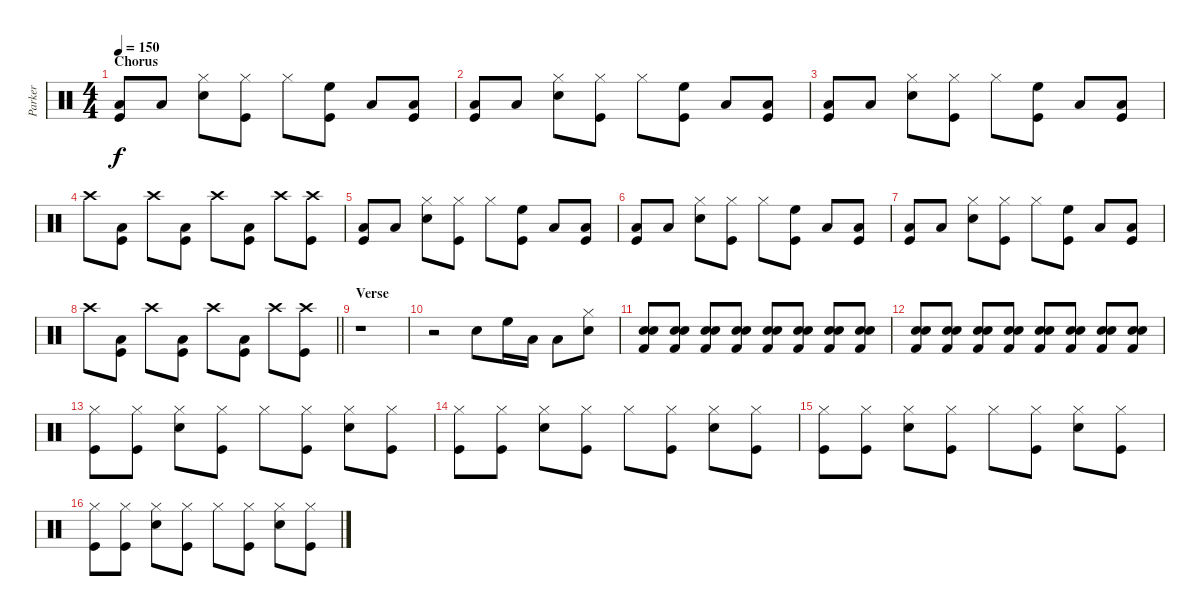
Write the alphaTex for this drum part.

\track ("Parker" "Parker") {instrument percussion}
\staff {score}
\articulation defaults
\ts (4 4)
\section ("" "Chorus")
\tempo 150
\clef neutral
\ks c
("Low Floor Tom (hit)" "Kick (hit)").8{dy f} "Low Tom (hit)".8 ("Hi-Hat (closed)" "Electric Snare (hit)").8 ("Hi-Hat (closed)" "Kick (hit)").8 "Hi-Hat (closed)".8 ("High Floor Tom (hit)" "Kick (hit)").8 "Low Tom (hit)".8 ("Low Floor Tom (hit)" "Kick (hit)").8 |
("Low Floor Tom (hit)" "Kick (hit)").8 "Low Tom (hit)".8 ("Hi-Hat (closed)" "Electric Snare (hit)").8 ("Hi-Hat (closed)" "Kick (hit)").8 "Hi-Hat (closed)".8 ("High Floor Tom (hit)" "Kick (hit)").8 "Low Tom (hit)".8 ("Low Floor Tom (hit)" "Kick (hit)").8 |
("Low Floor Tom (hit)" "Kick (hit)").8 "Low Tom (hit)".8 ("Hi-Hat (closed)" "Electric Snare (hit)").8 ("Hi-Hat (closed)" "Kick (hit)").8 "Hi-Hat (closed)".8 ("High Floor Tom (hit)" "Kick (hit)").8 "Low Tom (hit)".8 ("Low Floor Tom (hit)" "Kick (hit)").8 |
"Crash high (hit)".8 ("Low Floor Tom (hit)" "Kick (hit)").8 "Crash high (hit)".8 ("Low Floor Tom (hit)" "Kick (hit)").8 "Crash high (hit)".8 ("Low Floor Tom (hit)" "Kick (hit)").8 "Crash high (hit)".8 ("Crash high (hit)" "Kick (hit)").8 |
("Low Floor Tom (hit)" "Kick (hit)").8 "Low Tom (hit)".8 ("Hi-Hat (closed)" "Electric Snare (hit)").8 ("Hi-Hat (closed)" "Kick (hit)").8 "Hi-Hat (closed)".8 ("High Floor Tom (hit)" "Kick (hit)").8 "Low Tom (hit)".8 ("Low Floor Tom (hit)" "Kick (hit)").8 |
("Low Floor Tom (hit)" "Kick (hit)").8 "Low Tom (hit)".8 ("Hi-Hat (closed)" "Electric Snare (hit)").8 ("Hi-Hat (closed)" "Kick (hit)").8 "Hi-Hat (closed)".8 ("High Floor Tom (hit)" "Kick (hit)").8 "Low Tom (hit)".8 ("Low Floor Tom (hit)" "Kick (hit)").8 |
("Low Floor Tom (hit)" "Kick (hit)").8 "Low Tom (hit)".8 ("Hi-Hat (closed)" "Electric Snare (hit)").8 ("Hi-Hat (closed)" "Kick (hit)").8 "Hi-Hat (closed)".8 ("High Floor Tom (hit)" "Kick (hit)").8 "Low Tom (hit)".8 ("Low Floor Tom (hit)" "Kick (hit)").8 |
\barLineRight lightlight "Crash high (hit)".8
("Low Floor Tom (hit)" "Kick (hit)").8 "Crash high (hit)".8 ("Low Floor Tom (hit)" "Kick (hit)").8 "Crash high (hit)".8 ("Low Floor Tom (hit)" "Kick (hit)").8 "Crash high (hit)".8 ("Crash high (hit)" "Kick (hit)").8 |
\section ("" "Verse")
r.1 |
r.2 "Snare (hit) 2".8 "High Floor Tom (hit)".16 "Low Tom (hit)".16 "Low Floor Tom (hit)".8 ("Hi-Hat (closed)" "Snare (hit) 2").8 |
("Snare (hit) 2" "Snare (hit) 2" "Kick (hit) 2").8{volume 5} ("Snare (hit) 2" "Snare (hit) 2" "Kick (hit) 2").8{volume 16} ("Snare (hit) 2" "Snare (hit) 2" "Kick (hit) 2").8 ("Snare (hit) 2" "Snare (hit) 2" "Kick (hit) 2").8 ("Snare (hit) 2" "Snare (hit) 2" "Kick (hit) 2").8 ("Snare (hit) 2" "Snare (hit) 2" "Kick (hit) 2").8 ("Snare (hit) 2" "Snare (hit) 2" "Kick (hit) 2").8 ("Snare (hit) 2" "Snare (hit) 2" "Kick (hit) 2").8 |
("Snare (hit) 2" "Snare (hit) 2" "Kick (hit) 2").8 ("Snare (hit) 2" "Snare (hit) 2" "Kick (hit) 2").8 ("Snare (hit) 2" "Snare (hit) 2" "Kick (hit) 2").8 ("Snare (hit) 2" "Snare (hit) 2" "Kick (hit) 2").8 ("Snare (hit) 2" "Snare (hit) 2" "Kick (hit) 2").8 ("Snare (hit) 2" "Snare (hit) 2" "Kick (hit) 2").8 ("Snare (hit) 2" "Snare (hit) 2" "Kick (hit) 2").8 ("Snare (hit) 2" "Snare (hit) 2" "Kick (hit) 2").8 |
("Hi-Hat (closed)" "Kick (hit)").8 ("Hi-Hat (closed)" "Kick (hit)").8 ("Hi-Hat (closed)" "Electric Snare (hit)").8 ("Hi-Hat (closed)" "Kick (hit)").8 "Hi-Hat (closed)".8 ("Hi-Hat (closed)" "Kick (hit)").8 ("Hi-Hat (closed)" "Electric Snare (hit)").8 ("Hi-Hat (closed)" "Kick (hit)").8 |
("Hi-Hat (closed)" "Kick (hit)").8 ("Hi-Hat (closed)" "Kick (hit)").8 ("Hi-Hat (closed)" "Electric Snare (hit)").8 ("Hi-Hat (closed)" "Kick (hit)").8 "Hi-Hat (closed)".8 ("Hi-Hat (closed)" "Kick (hit)").8 ("Hi-Hat (closed)" "Electric Snare (hit)").8 ("Hi-Hat (closed)" "Kick (hit)").8 |
("Hi-Hat (closed)" "Kick (hit)").8 ("Hi-Hat (closed)" "Kick (hit)").8 ("Hi-Hat (closed)" "Electric Snare (hit)").8 ("Hi-Hat (closed)" "Kick (hit)").8 "Hi-Hat (closed)".8 ("Hi-Hat (closed)" "Kick (hit)").8 ("Hi-Hat (closed)" "Electric Snare (hit)").8 ("Hi-Hat (closed)" "Kick (hit)").8 |
("Hi-Hat (closed)" "Kick (hit)").8 ("Hi-Hat (closed)" "Kick (hit)").8 ("Hi-Hat (closed)" "Electric Snare (hit)").8 ("Hi-Hat (closed)" "Kick (hit)").8 "Hi-Hat (closed)".8 ("Hi-Hat (closed)" "Kick (hit)").8 ("Hi-Hat (closed)" "Electric Snare (hit)").8 ("Hi-Hat (closed)" "Kick (hit)").8
